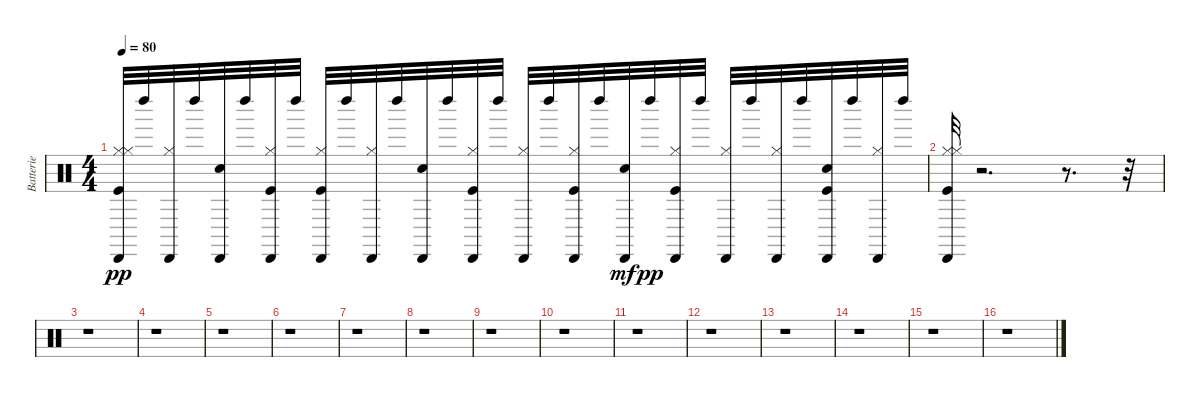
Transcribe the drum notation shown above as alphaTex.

\track ("Batterie" "Batterie") {instrument percussion}
\staff {score}
\articulation defaults
\ts (4 4)
\tempo 80
\clef neutral
\ks c
("Kick (hit)" "Hi-Hat (closed)" "Hi-Hat (closed)" "Cabasa (hit)").32{dy pp} "Left Maraca (hit)".32 ("Cabasa (hit)" "Hi-Hat (closed)").32 "Left Maraca (hit)".32 ("Electric Snare (hit)" "Cabasa (hit)").32 "Left Maraca (hit)".32 ("Cabasa (hit)" "Kick (hit)" "Hi-Hat (closed)").32 "Left Maraca (hit)".32 ("Hi-Hat (closed)" "Kick (hit)" "Cabasa (hit)").32 "Left Maraca (hit)".32 ("Cabasa (hit)" "Hi-Hat (closed)").32 "Left Maraca (hit)".32 ("Electric Snare (hit)" "Cabasa (hit)").32 "Left Maraca (hit)".32 ("Kick (hit)" "Cabasa (hit)" "Hi-Hat (closed)").32 "Left Maraca (hit)".32 ("Cabasa (hit)" "Hi-Hat (closed)").32 "Left Maraca (hit)".32 ("Cabasa (hit)" "Kick (hit)" "Hi-Hat (closed)").32 "Left Maraca (hit)".32 ("Cabasa (hit)" "Electric Snare (hit)").32{dy mf} "Left Maraca (hit)".32{dy pp} ("Cabasa (hit)" "Kick (hit)" "Hi-Hat (closed)").32 "Left Maraca (hit)".32 ("Hi-Hat (closed)" "Cabasa (hit)").32 "Left Maraca (hit)".32 ("Cabasa (hit)" "Hi-Hat (closed)").32 "Left Maraca (hit)".32 ("Kick (hit)" "Electric Snare (hit)" "Cabasa (hit)").32 "Left Maraca (hit)".32 ("Hi-Hat (closed)" "Cabasa (hit)").32 "Left Maraca (hit)".32 |
("Hi-Hat (closed)" "Cabasa (hit)" "Kick (hit)" "Hi-Hat (closed)").32 r.2{d} r.8{d} r.32 |
r.1 |
r.1 |
r.1 |
r.1 |
r.1 |
r.1 |
r.1 |
r.1 |
r.1 |
r.1 |
r.1 |
r.1 |
r.1 |
r.1
